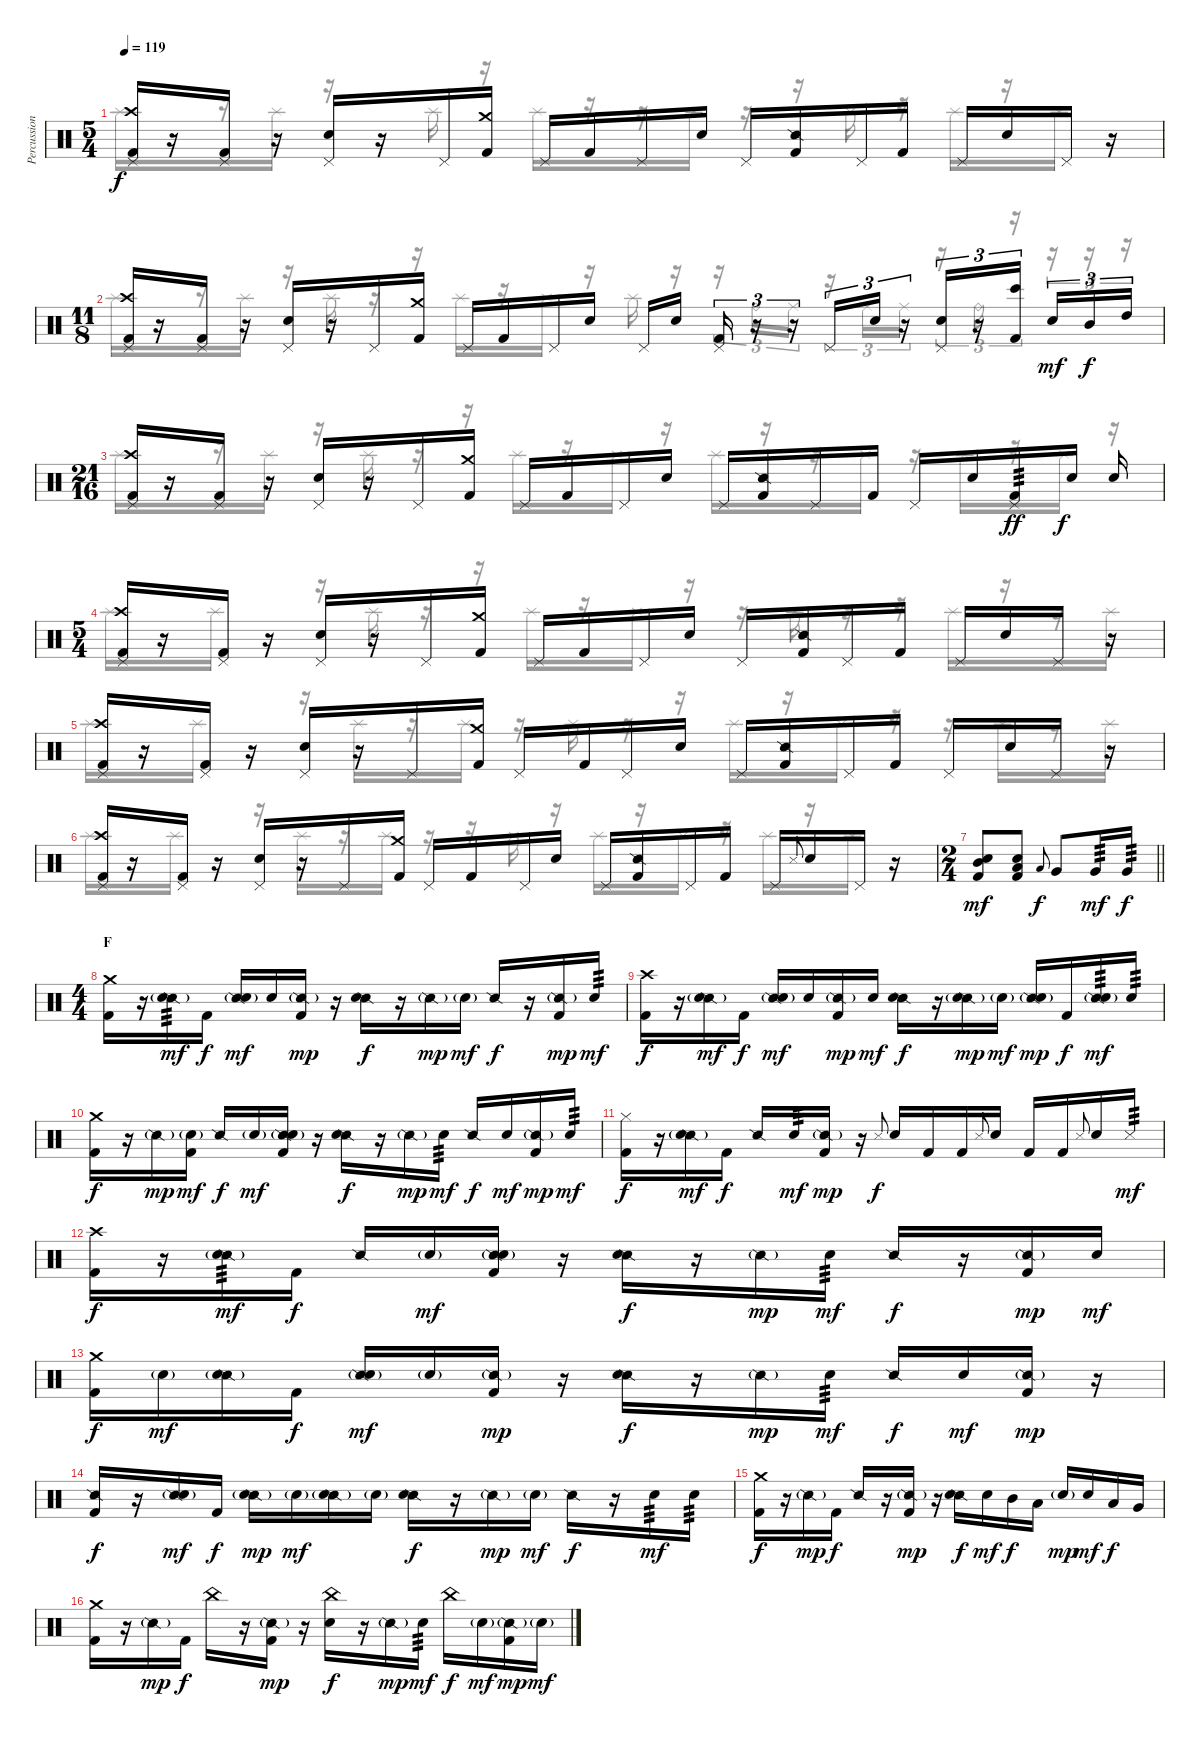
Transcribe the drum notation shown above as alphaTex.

\track ("Percussion" "Percussion") {instrument percussion}
\staff {score}
\articulation defaults
\voice
\ts (5 4)
\tempo 119
\clef neutral
\ks c
("Crash high (hit)" "Pedal Hi-Hat (hit)" "Kick (hit) 2").16{dy f} r.16 ("Pedal Hi-Hat (hit)" "Kick (hit) 2").16 r.16 ("Pedal Hi-Hat (hit)" "Snare (hit) 2").16 r.16 "Pedal Hi-Hat (hit)".16 ("Crash medium (hit)" "Kick (hit) 2").16 "Pedal Hi-Hat (hit)".16 "Kick (hit) 2".16 "Pedal Hi-Hat (hit)".16 "Snare (hit) 2".16 "Pedal Hi-Hat (hit)".16 ("Snare (side stick) 2" "Kick (hit) 2").16 "Pedal Hi-Hat (hit)".16 "Kick (hit) 2".16 "Pedal Hi-Hat (hit)".16 "Snare (hit) 2".16 "Pedal Hi-Hat (hit)".16 r.16 |
\ts (11 8)
("Crash high (hit)" "Pedal Hi-Hat (hit)" "Kick (hit) 2").16 r.16 ("Pedal Hi-Hat (hit)" "Kick (hit) 2").16 r.16 ("Pedal Hi-Hat (hit)" "Snare (hit) 2").16 r.16 "Pedal Hi-Hat (hit)".16 ("Crash medium (hit)" "Kick (hit) 2").16 "Pedal Hi-Hat (hit)".16 "Kick (hit) 2".16 "Pedal Hi-Hat (hit)".16 "Snare (hit) 2".16 "Pedal Hi-Hat (hit)".16 "Snare (hit)".16 ("Pedal Hi-Hat (hit)" "Kick (hit) 2").16{tu (3 2)} r.16{tu (3 2)} r.16{tu (3 2)} "Pedal Hi-Hat (hit)".16{tu (3 2)} "Snare (hit) 2".16{tu (3 2)} r.16{tu (3 2)} ("Pedal Hi-Hat (hit)" "Snare (hit) 2").16{tu (3 2)} r.16{tu (3 2)} ("Bongo High (hit)" "Kick (hit) 2").16{tu (3 2)} "Snare (hit) 2".16{tu (3 2) dy mf} "Mid Tom (hit)".16{tu (3 2) dy f} "High Tom (hit)".16{tu (3 2)} |
\ts (21 16)
("Crash high (hit)" "Pedal Hi-Hat (hit)" "Kick (hit) 2").16 r.16 ("Pedal Hi-Hat (hit)" "Kick (hit) 2").16 r.16 ("Pedal Hi-Hat (hit)" "Snare (hit) 2").16 r.16 "Pedal Hi-Hat (hit)".16 ("Crash medium (hit)" "Kick (hit) 2").16 "Pedal Hi-Hat (hit)".16 "Kick (hit) 2".16 "Pedal Hi-Hat (hit)".16 "Snare (hit) 2".16 "Pedal Hi-Hat (hit)".16 ("Snare (side stick) 2" "Kick (hit) 2").16 "Pedal Hi-Hat (hit)".16 "Kick (hit) 2".16 "Pedal Hi-Hat (hit)".16 "Snare (hit) 2".16 ("Pedal Hi-Hat (hit)" "Kick (hit) 2").16{tp 3 dy ff} "Snare (hit) 2".16{dy f} "Snare (hit) 2".16 |
\ts (5 4)
("Crash high (hit)" "Pedal Hi-Hat (hit)" "Kick (hit) 2").16 r.16 ("Pedal Hi-Hat (hit)" "Kick (hit) 2").16 r.16 ("Pedal Hi-Hat (hit)" "Snare (hit) 2").16 r.16 "Pedal Hi-Hat (hit)".16 ("Crash medium (hit)" "Kick (hit) 2").16 "Pedal Hi-Hat (hit)".16 "Kick (hit) 2".16 "Pedal Hi-Hat (hit)".16 "Snare (hit) 2".16 "Pedal Hi-Hat (hit)".16 ("Snare (side stick) 2" "Kick (hit) 2").16 "Pedal Hi-Hat (hit)".16 "Kick (hit) 2".16 "Pedal Hi-Hat (hit)".16 "Snare (hit) 2".16 "Pedal Hi-Hat (hit)".16 r.16 |
("Crash high (hit)" "Pedal Hi-Hat (hit)" "Kick (hit) 2").16 r.16 ("Pedal Hi-Hat (hit)" "Kick (hit) 2").16 r.16 ("Pedal Hi-Hat (hit)" "Snare (hit) 2").16 r.16 "Pedal Hi-Hat (hit)".16 ("Crash medium (hit)" "Kick (hit) 2").16 "Pedal Hi-Hat (hit)".16 "Kick (hit) 2".16 "Pedal Hi-Hat (hit)".16 "Snare (hit) 2".16 "Pedal Hi-Hat (hit)".16 ("Snare (side stick) 2" "Kick (hit) 2").16 "Pedal Hi-Hat (hit)".16 "Kick (hit) 2".16 "Pedal Hi-Hat (hit)".16 "Snare (hit) 2".16 "Pedal Hi-Hat (hit)".16 r.16 |
("Crash high (hit)" "Pedal Hi-Hat (hit)" "Kick (hit) 2").16 r.16 ("Pedal Hi-Hat (hit)" "Kick (hit) 2").16 r.16 ("Pedal Hi-Hat (hit)" "Snare (hit) 2").16 r.16 "Pedal Hi-Hat (hit)".16 ("Crash medium (hit)" "Kick (hit) 2").16 "Pedal Hi-Hat (hit)".16 "Kick (hit) 2".16 "Pedal Hi-Hat (hit)".16 "Snare (hit) 2".16 "Pedal Hi-Hat (hit)".16 ("Snare (side stick) 2" "Kick (hit) 2").16 "Pedal Hi-Hat (hit)".16 "Kick (hit) 2".16 "Pedal Hi-Hat (hit)".16 "Metronome (hit)".8{gr onbeat} "Snare (hit) 2".16 "Pedal Hi-Hat (hit)".16 r.16 |
\ts (2 4)
\barLineRight lightlight
("Mid Tom (hit)" "Snare (hit) 2" "Kick (hit) 2").8{dy mf} ("Snare (hit) 2" "Low Floor Tom (hit)" "Kick (hit) 2").8 "Low Tom (hit)".8{gr onbeat dy f} "Very Low Tom (hit)".8 "Very Low Tom (hit)".16{tp 3 dy mf} "Very Low Tom (hit)".16{tp 3 dy f} |
\ts (4 4)
\section ("" "F")
("Crash medium (hit)" "Kick (hit) 2").16 r.16 ("Snare (side stick) 2"{g} "Snare (hit) 2").16{tp 3 dy mf} "Kick (hit) 2".16{dy f} ("Snare (side stick) 2" "Snare (hit) 2"{g}).16{dy mf} "Snare (hit) 2".16 ("Snare (side stick) 2"{g} "Kick (hit) 2").16{dy mp} r.16 ("Snare (side stick) 2" "Snare (hit) 2").16{dy f} r.16 "Snare (side stick) 2"{g}.16{dy mp} "Snare (hit) 2"{g}.16{dy mf} "Snare (side stick) 2".16{dy f} r.16 ("Snare (side stick) 2"{g} "Kick (hit) 2").16{dy mp} "Snare (hit) 2".16{tp 3 dy mf} |
("Crash high (hit)" "Kick (hit) 2").16{dy f} r.16 ("Snare (side stick) 2"{g} "Snare (hit) 2"{g}).16{dy mf} "Kick (hit) 2".16{dy f} ("Snare (side stick) 2" "Snare (hit) 2"{g}).16{dy mf} "Snare (hit) 2".16 ("Snare (side stick) 2"{g} "Kick (hit) 2").16{dy mp} "Snare (hit) 2".16{dy mf} ("Snare (side stick) 2" "Snare (hit) 2").16{dy f} r.16 ("Snare (side stick) 2"{g} "Snare (hit) 2"{g}).16{dy mp} "Snare (hit) 2"{g}.16{dy mf} ("Snare (side stick) 2" "Snare (hit) 2"{g}).16{dy mp} "Kick (hit) 2".16{dy f} ("Snare (side stick) 2"{g} "Snare (hit) 2").16{tp 3 dy mf} "Snare (hit) 2".16{tp 3} |
("Crash medium (hit)" "Kick (hit) 2").16{dy f} r.16 "Snare (side stick) 2"{g}.16{dy mp} ("Snare (hit) 2"{g} "Kick (hit) 2").16{dy mf} "Snare (side stick) 2".16{dy f} "Snare (hit) 2"{g}.16{dy mf} ("Snare (side stick) 2"{g} "Snare (hit) 2"{g} "Kick (hit) 2").16 r.16 ("Snare (side stick) 2" "Snare (hit) 2").16{dy f} r.16 "Snare (side stick) 2"{g}.16{dy mp} "Snare (hit) 2".16{tp 3 dy mf} "Snare (side stick) 2".16{dy f} "Snare (hit) 2".16{dy mf} ("Snare (side stick) 2"{g} "Kick (hit) 2").16{dy mp} "Snare (hit) 2".16{tp 3 dy mf} |
("Hi-Hat (closed)" "Kick (hit) 2").16{dy f} r.16 ("Snare (side stick) 2"{g} "Snare (hit) 2").16{dy mf} "Kick (hit) 2".16{dy f} "Snare (side stick) 2".16 "Snare (hit) 2".16{tp 3 dy mf} ("Snare (side stick) 2"{g} "Kick (hit) 2").16{dy mp} r.16 "Metronome (hit)".8{gr onbeat dy f} "Snare (hit) 2".16 "Kick (hit) 2".16 "Kick (hit) 2".16 "Metronome (hit)".8{gr onbeat} "Snare (hit) 2".16 "Kick (hit) 2".16 "Kick (hit) 2".16 "Metronome (hit)".8{gr onbeat} "Snare (hit) 2".16 "Metronome (hit)".16{tp 3 dy mf} |
("Crash high (hit)" "Kick (hit) 2").16{dy f} r.16 ("Snare (side stick) 2"{g} "Snare (hit) 2").16{tp 3 dy mf} "Kick (hit) 2".16{dy f} "Snare (side stick) 2".16 "Snare (hit) 2"{g}.16{dy mf} ("Snare (side stick) 2"{g} "Snare (hit) 2"{g} "Kick (hit) 2").16 r.16 ("Snare (side stick) 2" "Snare (hit) 2").16{dy f} r.16 "Snare (side stick) 2"{g}.16{dy mp} "Snare (hit) 2".16{tp 3 dy mf} "Snare (side stick) 2".16{dy f} r.16 ("Snare (side stick) 2"{g} "Kick (hit) 2").16{dy mp} "Snare (hit) 2".16{dy mf} |
("Crash medium (hit)" "Kick (hit) 2").16{dy f} "Snare (hit) 2"{g}.16{dy mf} ("Snare (side stick) 2"{g} "Snare (hit) 2"{g}).16 "Kick (hit) 2".16{dy f} ("Snare (side stick) 2" "Snare (hit) 2"{g}).16{dy mf} "Snare (hit) 2"{g}.16 ("Snare (side stick) 2"{g} "Kick (hit) 2").16{dy mp} r.16 ("Snare (side stick) 2" "Snare (hit) 2").16{dy f} r.16 "Snare (side stick) 2"{g}.16{dy mp} "Snare (hit) 2".16{tp 3 dy mf} "Snare (side stick) 2".16{dy f} "Snare (hit) 2".16{dy mf} ("Snare (side stick) 2"{g} "Kick (hit) 2").16{dy mp} r.16 |
("Snare (side stick) 2" "Kick (hit) 2").16{dy f} r.16 ("Snare (side stick) 2"{g} "Snare (hit) 2"{g}).16{dy mf} "Kick (hit) 2".16{dy f} ("Snare (side stick) 2" "Snare (hit) 2"{g}).16{dy mp} "Snare (hit) 2"{g}.16{dy mf} ("Snare (side stick) 2"{g} "Snare (hit) 2").16 "Snare (hit) 2"{g}.16 ("Snare (side stick) 2" "Snare (hit) 2").16{dy f} r.16 "Snare (side stick) 2"{g}.16{dy mp} "Snare (hit) 2"{g}.16{dy mf} "Snare (side stick) 2".16{dy f} r.16 "Snare (hit) 2".16{tp 3 dy mf} "Snare (hit) 2".16{tp 3} |
("Crash medium (hit)" "Kick (hit) 2").16{dy f} r.16 "Snare (side stick) 2"{g}.16{dy mp} "Kick (hit) 2".16{dy f} "Snare (side stick) 2".16 r.16 ("Snare (side stick) 2"{g} "Kick (hit) 2").16{dy mp} r.16 ("Snare (side stick) 2" "Snare (hit) 2").16{dy f} "Snare (hit) 2".16{dy mf} "Mid Tom (hit)".16{dy f} "Low Tom (hit)".16 "Snare (hit) 2"{g}.16{dy mp} "Snare (hit) 2".16{dy mf} "Low Tom (hit)".16{dy f} "Very Low Tom (hit)".16 |
("Crash medium (hit)" "Kick (hit) 2").16 r.16 "Snare (side stick) 2"{g}.16{dy mp} "Kick (hit) 2".16{dy f} "China (hit)".16 r.16 ("Snare (side stick) 2"{g} "Kick (hit) 2").16{dy mp} r.16 ("China (hit)" "Snare (hit) 2").16{dy f} r.16 "Snare (side stick) 2"{g}.16{dy mp} "Snare (hit) 2".16{tp 3 dy mf} "China (hit)".16{dy f} "Snare (hit) 2"{g}.16{dy mf} ("Snare (side stick) 2"{g} "Kick (hit) 2").16{dy mp} "Snare (hit) 2"{g}.16{dy mf}
\voice
\clef neutral
\ottava regular
\simile none
\ks c "Splash (hit)".16{dy f}
r.16 r.16 "Splash (hit)".16 r.16 r.16 "Splash (hit)".16 r.16 "Splash (hit)".16 r.16 r.16 "Splash (hit)".16 r.16 r.16 "Splash (hit)".16 r.16 "Splash (hit)".16 r.16 "Splash (hit)".16 r.16 |
"Splash (hit)".16 r.16 r.16 "Splash (hit)".16 r.16 "Splash (hit)".16 r.16 r.16 "Splash (hit)".16 r.16 "Splash (hit)".16 r.16 "Splash (hit)".16 r.16 r.16{tu (3 2)} "Ride (bell)".16{tu (3 2)} "Ride (middle)".16{tu (3 2)} r.16{tu (3 2)} "Ride (middle)".16{tu (3 2)} "Ride (middle)".16{tu (3 2)} r.16{tu (3 2)} "Ride (bell)".16{tu (3 2)} r.16{tu (3 2)} r.16{tu (3 2)} r.16{tu (3 2)} r.16{tu (3 2)} |
"Splash (hit)".16 r.16 r.16 "Splash (hit)".16 r.16 "Splash (hit)".16 r.16 r.16 "Splash (hit)".16 r.16 "Splash (hit)".16 r.16 "Splash (hit)".16 r.16 r.16 "Splash (hit)".16 r.16 "Splash (hit)".16 r.16 "Splash (hit)".16 r.16 |
"Splash (hit)".16 r.16 "Splash (hit)".16 r.16 r.16 "Splash (hit)".16 r.16 r.16 "Splash (hit)".16 r.16 "Splash (hit)".16 r.16 r.16 "Splash (hit)".16 r.16 r.16 "Splash (hit)".16 r.16 r.16 "Splash (hit)".16 |
"Splash (hit)".16 r.16 "Splash (hit)".16 r.16 r.16 "Splash (hit)".16 r.16 "Splash (hit)".16 r.16 "Splash (hit)".16 r.16 r.16 "Splash (hit)".16 r.16 "Splash (hit)".16 r.16 r.16 "Splash (hit)".16 r.16 "Splash (hit)".16 |
"Splash (hit)".16 r.16 "Splash (hit)".16 r.16 r.16 "Splash (hit)".16 r.16 "Splash (hit)".16 r.16 r.16 "Splash (hit)".16 r.16 "Splash (hit)".16 r.16 "Splash (hit)".16 r.16 "Splash (hit)".16 r.16 "Splash (hit)".16 r.16 |
\barLineRight lightlight
|
|
|
|
|
|
|
|
|
